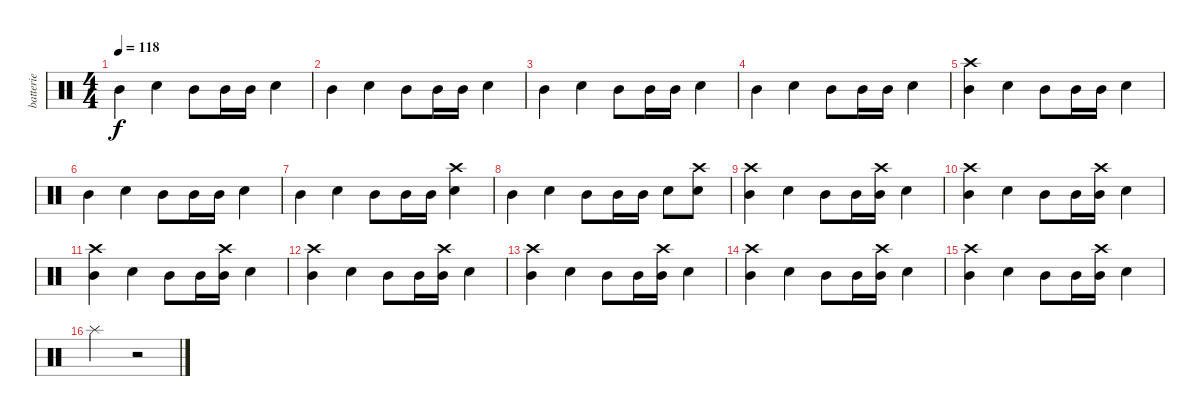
\track ("batterie" "batterie") {instrument percussion}
\staff {score}
\articulation defaults
\ts (4 4)
\tempo 118
\clef neutral
\ks c "Mid Tom (hit)".4{dy f} "Electric Snare (hit)".4 "Mid Tom (hit)".8 "Mid Tom (hit)".16 "Mid Tom (hit)".16 "Electric Snare (hit)".4
|
"Mid Tom (hit)".4 "Electric Snare (hit)".4 "Mid Tom (hit)".8 "Mid Tom (hit)".16 "Mid Tom (hit)".16 "Electric Snare (hit)".4 |
"Mid Tom (hit)".4 "Electric Snare (hit)".4 "Mid Tom (hit)".8 "Mid Tom (hit)".16 "Mid Tom (hit)".16 "Electric Snare (hit)".4 |
"Mid Tom (hit)".4 "Electric Snare (hit)".4 "Mid Tom (hit)".8 "Mid Tom (hit)".16 "Mid Tom (hit)".16 "Electric Snare (hit)".4 |
("Mid Tom (hit)" "Crash high (hit)").4 "Electric Snare (hit)".4 "Mid Tom (hit)".8 "Mid Tom (hit)".16 "Mid Tom (hit)".16 "Electric Snare (hit)".4 |
"Mid Tom (hit)".4 "Electric Snare (hit)".4 "Mid Tom (hit)".8 "Mid Tom (hit)".16 "Mid Tom (hit)".16 "Electric Snare (hit)".4 |
"Mid Tom (hit)".4 "Electric Snare (hit)".4 "Mid Tom (hit)".8 "Mid Tom (hit)".16 "Mid Tom (hit)".16 ("Electric Snare (hit)" "Crash high (hit)").4 |
"Mid Tom (hit)".4 "Electric Snare (hit)".4 "Mid Tom (hit)".8 "Mid Tom (hit)".16 "Mid Tom (hit)".16 "Electric Snare (hit)".8 ("Electric Snare (hit)" "Crash high (hit)").8 |
("Mid Tom (hit)" "Crash high (hit)").4 "Electric Snare (hit)".4 "Mid Tom (hit)".8 "Mid Tom (hit)".16 ("Mid Tom (hit)" "Crash high (hit)").16 "Electric Snare (hit)".4 |
("Mid Tom (hit)" "Crash high (hit)").4 "Electric Snare (hit)".4 "Mid Tom (hit)".8 "Mid Tom (hit)".16 ("Mid Tom (hit)" "Crash high (hit)").16 "Electric Snare (hit)".4 |
("Mid Tom (hit)" "Crash high (hit)").4 "Electric Snare (hit)".4 "Mid Tom (hit)".8 "Mid Tom (hit)".16 ("Mid Tom (hit)" "Crash high (hit)").16 "Electric Snare (hit)".4 |
("Mid Tom (hit)" "Crash high (hit)").4 "Electric Snare (hit)".4 "Mid Tom (hit)".8 "Mid Tom (hit)".16 ("Mid Tom (hit)" "Crash high (hit)").16 "Electric Snare (hit)".4 |
("Mid Tom (hit)" "Crash high (hit)").4 "Electric Snare (hit)".4 "Mid Tom (hit)".8 "Mid Tom (hit)".16 ("Mid Tom (hit)" "Crash high (hit)").16 "Electric Snare (hit)".4 |
("Mid Tom (hit)" "Crash high (hit)").4 "Electric Snare (hit)".4 "Mid Tom (hit)".8 "Mid Tom (hit)".16 ("Mid Tom (hit)" "Crash high (hit)").16 "Electric Snare (hit)".4 |
("Mid Tom (hit)" "Crash high (hit)").4 "Electric Snare (hit)".4 "Mid Tom (hit)".8 "Mid Tom (hit)".16 ("Mid Tom (hit)" "Crash high (hit)").16 "Electric Snare (hit)".4 |
"Splash (hit)".2 r.2
